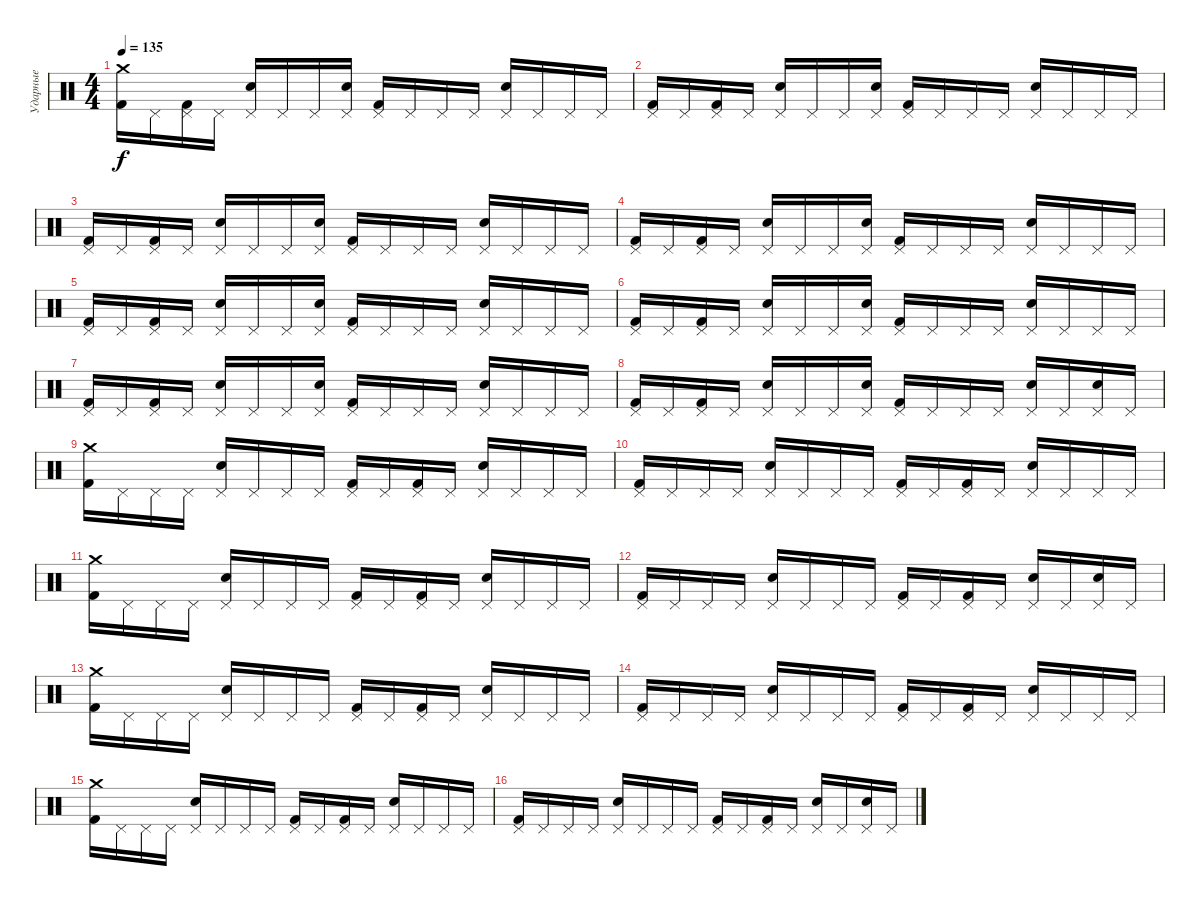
\track ("Ударные" "Ударные") {instrument percussion}
\staff {score}
\articulation defaults
\ts (4 4)
\tempo 135
\clef neutral
\ks c
("Crash medium (hit)" "Kick (hit) 2").16{dy f} "Pedal Hi-Hat (hit)".16 ("Pedal Hi-Hat (hit)" "Kick (hit) 2").16 "Pedal Hi-Hat (hit)".16 ("Pedal Hi-Hat (hit)" "Snare (hit) 2").16 "Pedal Hi-Hat (hit)".16 "Pedal Hi-Hat (hit)".16 ("Pedal Hi-Hat (hit)" "Snare (hit) 2").16 ("Pedal Hi-Hat (hit)" "Kick (hit) 2").16 "Pedal Hi-Hat (hit)".16 "Pedal Hi-Hat (hit)".16 "Pedal Hi-Hat (hit)".16 ("Pedal Hi-Hat (hit)" "Snare (hit) 2").16 "Pedal Hi-Hat (hit)".16 "Pedal Hi-Hat (hit)".16 "Pedal Hi-Hat (hit)".16 |
("Pedal Hi-Hat (hit)" "Kick (hit) 2").16 "Pedal Hi-Hat (hit)".16 ("Pedal Hi-Hat (hit)" "Kick (hit) 2").16 "Pedal Hi-Hat (hit)".16 ("Pedal Hi-Hat (hit)" "Snare (hit) 2").16 "Pedal Hi-Hat (hit)".16 "Pedal Hi-Hat (hit)".16 ("Pedal Hi-Hat (hit)" "Snare (hit) 2").16 ("Pedal Hi-Hat (hit)" "Kick (hit) 2").16 "Pedal Hi-Hat (hit)".16 "Pedal Hi-Hat (hit)".16 "Pedal Hi-Hat (hit)".16 ("Pedal Hi-Hat (hit)" "Snare (hit) 2").16 "Pedal Hi-Hat (hit)".16 "Pedal Hi-Hat (hit)".16 "Pedal Hi-Hat (hit)".16 |
("Pedal Hi-Hat (hit)" "Kick (hit) 2").16 "Pedal Hi-Hat (hit)".16 ("Pedal Hi-Hat (hit)" "Kick (hit) 2").16 "Pedal Hi-Hat (hit)".16 ("Pedal Hi-Hat (hit)" "Snare (hit) 2").16 "Pedal Hi-Hat (hit)".16 "Pedal Hi-Hat (hit)".16 ("Pedal Hi-Hat (hit)" "Snare (hit) 2").16 ("Pedal Hi-Hat (hit)" "Kick (hit) 2").16 "Pedal Hi-Hat (hit)".16 "Pedal Hi-Hat (hit)".16 "Pedal Hi-Hat (hit)".16 ("Pedal Hi-Hat (hit)" "Snare (hit) 2").16 "Pedal Hi-Hat (hit)".16 "Pedal Hi-Hat (hit)".16 "Pedal Hi-Hat (hit)".16 |
("Pedal Hi-Hat (hit)" "Kick (hit) 2").16 "Pedal Hi-Hat (hit)".16 ("Pedal Hi-Hat (hit)" "Kick (hit) 2").16 "Pedal Hi-Hat (hit)".16 ("Pedal Hi-Hat (hit)" "Snare (hit) 2").16 "Pedal Hi-Hat (hit)".16 "Pedal Hi-Hat (hit)".16 ("Pedal Hi-Hat (hit)" "Snare (hit) 2").16 ("Pedal Hi-Hat (hit)" "Kick (hit) 2").16 "Pedal Hi-Hat (hit)".16 "Pedal Hi-Hat (hit)".16 "Pedal Hi-Hat (hit)".16 ("Pedal Hi-Hat (hit)" "Snare (hit) 2").16 "Pedal Hi-Hat (hit)".16 "Pedal Hi-Hat (hit)".16 "Pedal Hi-Hat (hit)".16 |
("Pedal Hi-Hat (hit)" "Kick (hit) 2").16 "Pedal Hi-Hat (hit)".16 ("Pedal Hi-Hat (hit)" "Kick (hit) 2").16 "Pedal Hi-Hat (hit)".16 ("Pedal Hi-Hat (hit)" "Snare (hit) 2").16 "Pedal Hi-Hat (hit)".16 "Pedal Hi-Hat (hit)".16 ("Pedal Hi-Hat (hit)" "Snare (hit) 2").16 ("Pedal Hi-Hat (hit)" "Kick (hit) 2").16 "Pedal Hi-Hat (hit)".16 "Pedal Hi-Hat (hit)".16 "Pedal Hi-Hat (hit)".16 ("Pedal Hi-Hat (hit)" "Snare (hit) 2").16 "Pedal Hi-Hat (hit)".16 "Pedal Hi-Hat (hit)".16 "Pedal Hi-Hat (hit)".16 |
("Pedal Hi-Hat (hit)" "Kick (hit) 2").16 "Pedal Hi-Hat (hit)".16 ("Pedal Hi-Hat (hit)" "Kick (hit) 2").16 "Pedal Hi-Hat (hit)".16 ("Pedal Hi-Hat (hit)" "Snare (hit) 2").16 "Pedal Hi-Hat (hit)".16 "Pedal Hi-Hat (hit)".16 ("Pedal Hi-Hat (hit)" "Snare (hit) 2").16 ("Pedal Hi-Hat (hit)" "Kick (hit) 2").16 "Pedal Hi-Hat (hit)".16 "Pedal Hi-Hat (hit)".16 "Pedal Hi-Hat (hit)".16 ("Pedal Hi-Hat (hit)" "Snare (hit) 2").16 "Pedal Hi-Hat (hit)".16 "Pedal Hi-Hat (hit)".16 "Pedal Hi-Hat (hit)".16 |
("Pedal Hi-Hat (hit)" "Kick (hit) 2").16 "Pedal Hi-Hat (hit)".16 ("Pedal Hi-Hat (hit)" "Kick (hit) 2").16 "Pedal Hi-Hat (hit)".16 ("Pedal Hi-Hat (hit)" "Snare (hit) 2").16 "Pedal Hi-Hat (hit)".16 "Pedal Hi-Hat (hit)".16 ("Pedal Hi-Hat (hit)" "Snare (hit) 2").16 ("Pedal Hi-Hat (hit)" "Kick (hit) 2").16 "Pedal Hi-Hat (hit)".16 "Pedal Hi-Hat (hit)".16 "Pedal Hi-Hat (hit)".16 ("Pedal Hi-Hat (hit)" "Snare (hit) 2").16 "Pedal Hi-Hat (hit)".16 "Pedal Hi-Hat (hit)".16 "Pedal Hi-Hat (hit)".16 |
("Pedal Hi-Hat (hit)" "Kick (hit) 2").16 "Pedal Hi-Hat (hit)".16 ("Pedal Hi-Hat (hit)" "Kick (hit) 2").16 "Pedal Hi-Hat (hit)".16 ("Pedal Hi-Hat (hit)" "Snare (hit) 2").16 "Pedal Hi-Hat (hit)".16 "Pedal Hi-Hat (hit)".16 ("Pedal Hi-Hat (hit)" "Snare (hit) 2").16 ("Pedal Hi-Hat (hit)" "Kick (hit) 2").16 "Pedal Hi-Hat (hit)".16 "Pedal Hi-Hat (hit)".16 "Pedal Hi-Hat (hit)".16 ("Pedal Hi-Hat (hit)" "Snare (hit) 2").16 "Pedal Hi-Hat (hit)".16 ("Pedal Hi-Hat (hit)" "Snare (hit) 2").16 "Pedal Hi-Hat (hit)".16 |
("Crash medium (hit)" "Kick (hit) 2").16 "Pedal Hi-Hat (hit)".16 "Pedal Hi-Hat (hit)".16 "Pedal Hi-Hat (hit)".16 ("Pedal Hi-Hat (hit)" "Snare (hit) 2").16 "Pedal Hi-Hat (hit)".16 "Pedal Hi-Hat (hit)".16 "Pedal Hi-Hat (hit)".16 ("Pedal Hi-Hat (hit)" "Kick (hit) 2").16 "Pedal Hi-Hat (hit)".16 ("Pedal Hi-Hat (hit)" "Kick (hit) 2").16 "Pedal Hi-Hat (hit)".16 ("Pedal Hi-Hat (hit)" "Snare (hit) 2").16 "Pedal Hi-Hat (hit)".16 "Pedal Hi-Hat (hit)".16 "Pedal Hi-Hat (hit)".16 |
("Pedal Hi-Hat (hit)" "Kick (hit) 2").16 "Pedal Hi-Hat (hit)".16 "Pedal Hi-Hat (hit)".16 "Pedal Hi-Hat (hit)".16 ("Pedal Hi-Hat (hit)" "Snare (hit) 2").16 "Pedal Hi-Hat (hit)".16 "Pedal Hi-Hat (hit)".16 "Pedal Hi-Hat (hit)".16 ("Pedal Hi-Hat (hit)" "Kick (hit) 2").16 "Pedal Hi-Hat (hit)".16 ("Pedal Hi-Hat (hit)" "Kick (hit) 2").16 "Pedal Hi-Hat (hit)".16 ("Pedal Hi-Hat (hit)" "Snare (hit) 2").16 "Pedal Hi-Hat (hit)".16 "Pedal Hi-Hat (hit)".16 "Pedal Hi-Hat (hit)".16 |
("Crash medium (hit)" "Kick (hit) 2").16 "Pedal Hi-Hat (hit)".16 "Pedal Hi-Hat (hit)".16 "Pedal Hi-Hat (hit)".16 ("Pedal Hi-Hat (hit)" "Snare (hit) 2").16 "Pedal Hi-Hat (hit)".16 "Pedal Hi-Hat (hit)".16 "Pedal Hi-Hat (hit)".16 ("Pedal Hi-Hat (hit)" "Kick (hit) 2").16 "Pedal Hi-Hat (hit)".16 ("Pedal Hi-Hat (hit)" "Kick (hit) 2").16 "Pedal Hi-Hat (hit)".16 ("Pedal Hi-Hat (hit)" "Snare (hit) 2").16 "Pedal Hi-Hat (hit)".16 "Pedal Hi-Hat (hit)".16 "Pedal Hi-Hat (hit)".16 |
("Pedal Hi-Hat (hit)" "Kick (hit) 2").16 "Pedal Hi-Hat (hit)".16 "Pedal Hi-Hat (hit)".16 "Pedal Hi-Hat (hit)".16 ("Pedal Hi-Hat (hit)" "Snare (hit) 2").16 "Pedal Hi-Hat (hit)".16 "Pedal Hi-Hat (hit)".16 "Pedal Hi-Hat (hit)".16 ("Pedal Hi-Hat (hit)" "Kick (hit) 2").16 "Pedal Hi-Hat (hit)".16 ("Pedal Hi-Hat (hit)" "Kick (hit) 2").16 "Pedal Hi-Hat (hit)".16 ("Pedal Hi-Hat (hit)" "Snare (hit) 2").16 "Pedal Hi-Hat (hit)".16 ("Pedal Hi-Hat (hit)" "Snare (hit) 2").16 "Pedal Hi-Hat (hit)".16 |
("Crash medium (hit)" "Kick (hit) 2").16 "Pedal Hi-Hat (hit)".16 "Pedal Hi-Hat (hit)".16 "Pedal Hi-Hat (hit)".16 ("Pedal Hi-Hat (hit)" "Snare (hit) 2").16 "Pedal Hi-Hat (hit)".16 "Pedal Hi-Hat (hit)".16 "Pedal Hi-Hat (hit)".16 ("Pedal Hi-Hat (hit)" "Kick (hit) 2").16 "Pedal Hi-Hat (hit)".16 ("Pedal Hi-Hat (hit)" "Kick (hit) 2").16 "Pedal Hi-Hat (hit)".16 ("Pedal Hi-Hat (hit)" "Snare (hit) 2").16 "Pedal Hi-Hat (hit)".16 "Pedal Hi-Hat (hit)".16 "Pedal Hi-Hat (hit)".16 |
("Pedal Hi-Hat (hit)" "Kick (hit) 2").16 "Pedal Hi-Hat (hit)".16 "Pedal Hi-Hat (hit)".16 "Pedal Hi-Hat (hit)".16 ("Pedal Hi-Hat (hit)" "Snare (hit) 2").16 "Pedal Hi-Hat (hit)".16 "Pedal Hi-Hat (hit)".16 "Pedal Hi-Hat (hit)".16 ("Pedal Hi-Hat (hit)" "Kick (hit) 2").16 "Pedal Hi-Hat (hit)".16 ("Pedal Hi-Hat (hit)" "Kick (hit) 2").16 "Pedal Hi-Hat (hit)".16 ("Pedal Hi-Hat (hit)" "Snare (hit) 2").16 "Pedal Hi-Hat (hit)".16 "Pedal Hi-Hat (hit)".16 "Pedal Hi-Hat (hit)".16 |
("Crash medium (hit)" "Kick (hit) 2").16 "Pedal Hi-Hat (hit)".16 "Pedal Hi-Hat (hit)".16 "Pedal Hi-Hat (hit)".16 ("Pedal Hi-Hat (hit)" "Snare (hit) 2").16 "Pedal Hi-Hat (hit)".16 "Pedal Hi-Hat (hit)".16 "Pedal Hi-Hat (hit)".16 ("Pedal Hi-Hat (hit)" "Kick (hit) 2").16 "Pedal Hi-Hat (hit)".16 ("Pedal Hi-Hat (hit)" "Kick (hit) 2").16 "Pedal Hi-Hat (hit)".16 ("Pedal Hi-Hat (hit)" "Snare (hit) 2").16 "Pedal Hi-Hat (hit)".16 "Pedal Hi-Hat (hit)".16 "Pedal Hi-Hat (hit)".16 |
("Pedal Hi-Hat (hit)" "Kick (hit) 2").16 "Pedal Hi-Hat (hit)".16 "Pedal Hi-Hat (hit)".16 "Pedal Hi-Hat (hit)".16 ("Pedal Hi-Hat (hit)" "Snare (hit) 2").16 "Pedal Hi-Hat (hit)".16 "Pedal Hi-Hat (hit)".16 "Pedal Hi-Hat (hit)".16 ("Pedal Hi-Hat (hit)" "Kick (hit) 2").16 "Pedal Hi-Hat (hit)".16 ("Pedal Hi-Hat (hit)" "Kick (hit) 2").16 "Pedal Hi-Hat (hit)".16 ("Pedal Hi-Hat (hit)" "Snare (hit) 2").16 "Pedal Hi-Hat (hit)".16 ("Pedal Hi-Hat (hit)" "Snare (hit) 2").16 "Pedal Hi-Hat (hit)".16
